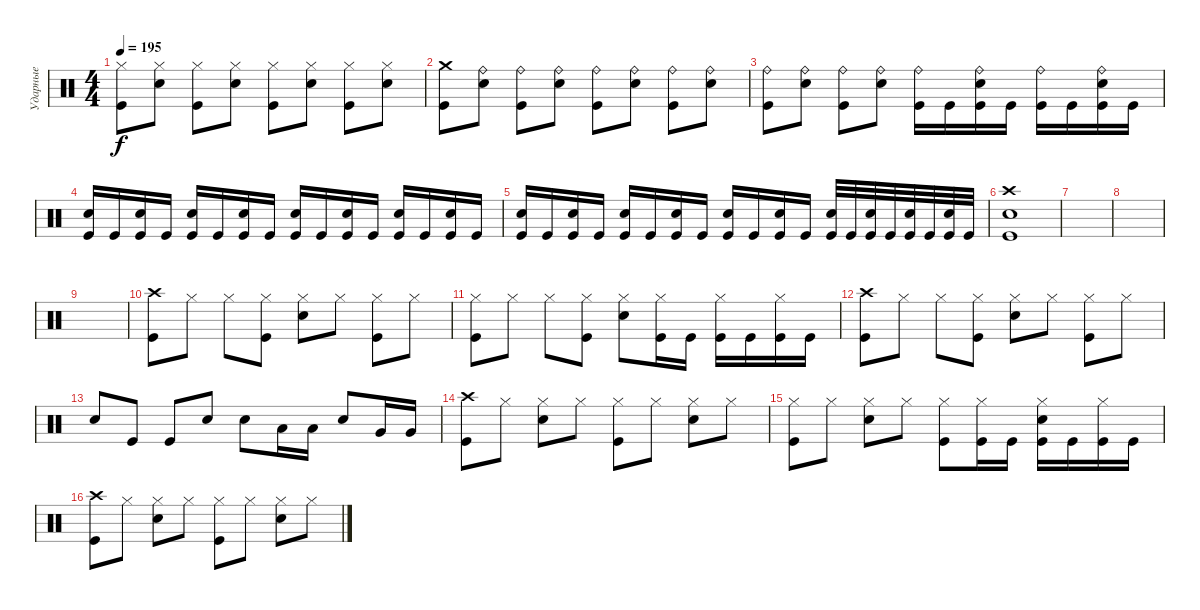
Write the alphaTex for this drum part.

\track ("Ударные" "Ударные") {instrument percussion}
\staff {score}
\articulation defaults
\ts (4 4)
\tempo 195
\clef neutral
\ks c
("Hi-Hat (closed)" "Kick (hit)").8{dy f} ("Hi-Hat (closed)" "Electric Snare (hit)").8 ("Hi-Hat (closed)" "Kick (hit)").8 ("Hi-Hat (closed)" "Electric Snare (hit)").8 ("Hi-Hat (closed)" "Kick (hit)").8 ("Hi-Hat (closed)" "Electric Snare (hit)").8 ("Hi-Hat (closed)" "Kick (hit)").8 ("Hi-Hat (closed)" "Electric Snare (hit)").8 |
("Crash medium (hit)" "Kick (hit)").8 ("Ride (bell)" "Electric Snare (hit)").8 ("Ride (bell)" "Kick (hit)").8 ("Ride (bell)" "Electric Snare (hit)").8 ("Ride (bell)" "Kick (hit)").8 ("Ride (bell)" "Electric Snare (hit)").8 ("Ride (bell)" "Kick (hit)").8 ("Ride (bell)" "Electric Snare (hit)").8 |
("Ride (bell)" "Kick (hit)").8 ("Ride (bell)" "Electric Snare (hit)").8 ("Ride (bell)" "Kick (hit)").8 ("Ride (bell)" "Electric Snare (hit)").8 ("Ride (bell)" "Kick (hit)").16 "Kick (hit)".16 ("Ride (bell)" "Electric Snare (hit)" "Kick (hit)").16 "Kick (hit)".16 ("Ride (bell)" "Kick (hit)").16 "Kick (hit)".16 ("Ride (bell)" "Electric Snare (hit)" "Kick (hit)").16 "Kick (hit)".16 |
("Electric Snare (hit)" "Kick (hit)").16 "Kick (hit)".16 ("Electric Snare (hit)" "Kick (hit)").16 "Kick (hit)".16 ("Electric Snare (hit)" "Kick (hit)").16 "Kick (hit)".16 ("Electric Snare (hit)" "Kick (hit)").16 "Kick (hit)".16 ("Electric Snare (hit)" "Kick (hit)").16 "Kick (hit)".16 ("Electric Snare (hit)" "Kick (hit)").16 "Kick (hit)".16 ("Electric Snare (hit)" "Kick (hit)").16 "Kick (hit)".16 ("Electric Snare (hit)" "Kick (hit)").16 "Kick (hit)".16 |
("Electric Snare (hit)" "Kick (hit)").16 "Kick (hit)".16 ("Electric Snare (hit)" "Kick (hit)").16 "Kick (hit)".16 ("Electric Snare (hit)" "Kick (hit)").16 "Kick (hit)".16 ("Electric Snare (hit)" "Kick (hit)").16 "Kick (hit)".16 ("Electric Snare (hit)" "Kick (hit)").16 "Kick (hit)".16 ("Electric Snare (hit)" "Kick (hit)").16 "Kick (hit)".16 ("Electric Snare (hit)" "Kick (hit)").32 "Kick (hit)".32 ("Electric Snare (hit)" "Kick (hit)").32 "Kick (hit)".32 ("Electric Snare (hit)" "Kick (hit)").32 "Kick (hit)".32 ("Electric Snare (hit)" "Kick (hit)").32 "Kick (hit)".32 |
("Electric Snare (hit)" "Crash high (hit)" "Kick (hit)").1 |
|
|
|
("Crash high (hit)" "Kick (hit)").8 "Hi-Hat (closed)".8 "Hi-Hat (closed)".8 ("Hi-Hat (closed)" "Kick (hit)").8 ("Hi-Hat (closed)" "Electric Snare (hit)").8 "Hi-Hat (closed)".8 ("Hi-Hat (closed)" "Kick (hit)").8 "Hi-Hat (closed)".8 |
("Hi-Hat (closed)" "Kick (hit)").8 "Hi-Hat (closed)".8 "Hi-Hat (closed)".8 ("Hi-Hat (closed)" "Kick (hit)").8 ("Hi-Hat (closed)" "Electric Snare (hit)").8 ("Hi-Hat (closed)" "Kick (hit)").16 "Kick (hit)".16 ("Hi-Hat (closed)" "Kick (hit)").16 "Kick (hit)".16 ("Hi-Hat (closed)" "Kick (hit)").16 "Kick (hit)".16 |
("Crash high (hit)" "Kick (hit)").8 "Hi-Hat (closed)".8 "Hi-Hat (closed)".8 ("Hi-Hat (closed)" "Kick (hit)").8 ("Hi-Hat (closed)" "Electric Snare (hit)").8 "Hi-Hat (closed)".8 ("Hi-Hat (closed)" "Kick (hit)").8 "Hi-Hat (closed)".8 |
"Electric Snare (hit)".8 "Kick (hit)".8 "Kick (hit)".8 "Electric Snare (hit)".8 "Electric Snare (hit)".8 "Low Tom (hit)".16 "Low Tom (hit)".16 "Electric Snare (hit)".8 "Very Low Tom (hit)".16 "Very Low Tom (hit)".16 |
("Crash high (hit)" "Kick (hit)").8 "Hi-Hat (closed)".8 ("Hi-Hat (closed)" "Electric Snare (hit)").8 "Hi-Hat (closed)".8 ("Hi-Hat (closed)" "Kick (hit)").8 "Hi-Hat (closed)".8 ("Hi-Hat (closed)" "Electric Snare (hit)").8 "Hi-Hat (closed)".8 |
("Hi-Hat (closed)" "Kick (hit)").8 "Hi-Hat (closed)".8 ("Hi-Hat (closed)" "Electric Snare (hit)").8 "Hi-Hat (closed)".8 ("Hi-Hat (closed)" "Kick (hit)").8 ("Hi-Hat (closed)" "Kick (hit)").16 "Kick (hit)".16 ("Hi-Hat (closed)" "Electric Snare (hit)" "Kick (hit)").16 "Kick (hit)".16 ("Hi-Hat (closed)" "Kick (hit)").16 "Kick (hit)".16 |
("Crash high (hit)" "Kick (hit)").8 "Hi-Hat (closed)".8 ("Hi-Hat (closed)" "Electric Snare (hit)").8 "Hi-Hat (closed)".8 ("Hi-Hat (closed)" "Kick (hit)").8 "Hi-Hat (closed)".8 ("Hi-Hat (closed)" "Electric Snare (hit)").8 "Hi-Hat (closed)".8
